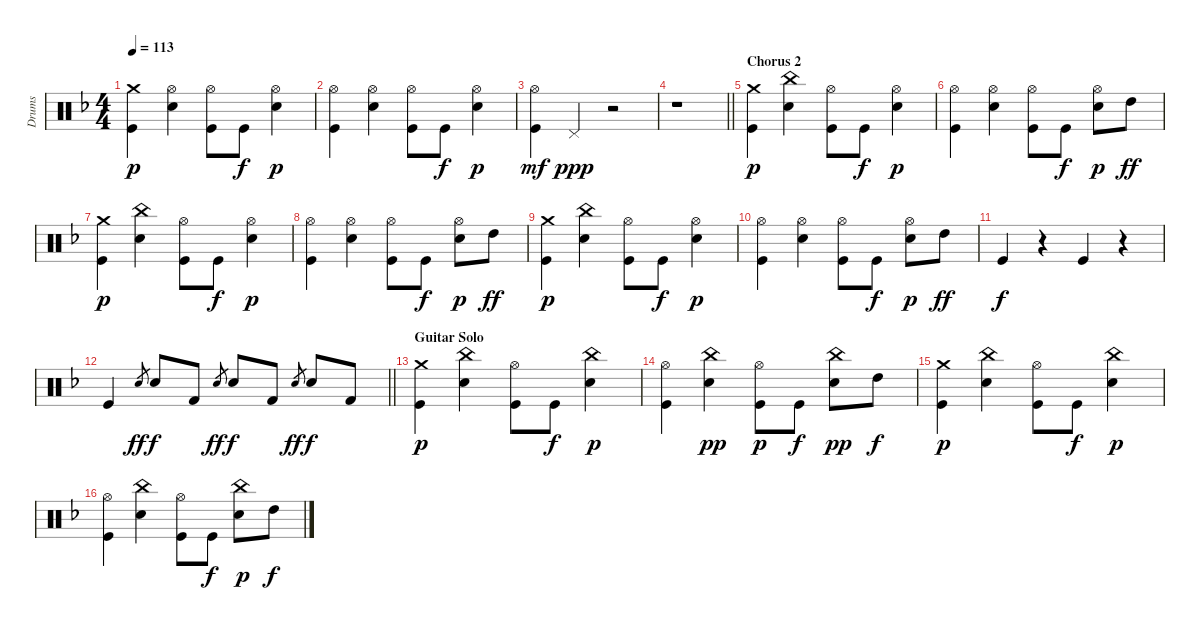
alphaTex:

\track ("Drums" "Drums") {instrument percussion}
\staff {score}
\articulation defaults
\ts (4 4)
\tempo 113
\clef neutral
\ks dminor
("Kick (hit)" "Crash medium (hit)").4{dy p} ("Hi-Hat (open)" "Electric Snare (hit)").4 ("Kick (hit)" "Hi-Hat (open)").8 "Kick (hit)".8{dy f} ("Electric Snare (hit)" "Hi-Hat (open)").4{dy p} |
("Kick (hit)" "Hi-Hat (open)").4 ("Hi-Hat (open)" "Electric Snare (hit)").4 ("Kick (hit)" "Hi-Hat (open)").8 "Kick (hit)".8{dy f} ("Electric Snare (hit)" "Hi-Hat (open)").4{dy p} |
("Kick (hit)" "Hi-Hat (open)").4{dy mf} "Pedal Hi-Hat (hit)".4{dy ppp} r.2 |
\barLineRight lightlight
r.1 |
\section ("" "Chorus 2")
("Kick (hit)" "Crash medium (hit)").4{dy p} ("China (hit)" "Electric Snare (hit)").4 ("Kick (hit)" "Hi-Hat (open)").8 "Kick (hit)".8{dy f} ("Electric Snare (hit)" "Hi-Hat (open)").4{dy p} |
("Kick (hit)" "Hi-Hat (open)").4 ("Hi-Hat (open)" "Electric Snare (hit)").4 ("Kick (hit)" "Hi-Hat (open)").8 "Kick (hit)".8{dy f} ("Electric Snare (hit)" "Hi-Hat (open)").8{dy p} "High Tom (hit)".8{dy ff} |
("Kick (hit)" "Crash medium (hit)").4{dy p} ("China (hit)" "Electric Snare (hit)").4 ("Kick (hit)" "Hi-Hat (open)").8 "Kick (hit)".8{dy f} ("Electric Snare (hit)" "Hi-Hat (open)").4{dy p} |
("Kick (hit)" "Hi-Hat (open)").4 ("Hi-Hat (open)" "Electric Snare (hit)").4 ("Kick (hit)" "Hi-Hat (open)").8 "Kick (hit)".8{dy f} ("Electric Snare (hit)" "Hi-Hat (open)").8{dy p} "High Tom (hit)".8{dy ff} |
("Kick (hit)" "Crash medium (hit)").4{dy p} ("China (hit)" "Electric Snare (hit)").4 ("Kick (hit)" "Hi-Hat (open)").8 "Kick (hit)".8{dy f} ("Electric Snare (hit)" "Hi-Hat (open)").4{dy p} |
("Kick (hit)" "Hi-Hat (open)").4 ("Hi-Hat (open)" "Electric Snare (hit)").4 ("Kick (hit)" "Hi-Hat (open)").8 "Kick (hit)".8{dy f} ("Electric Snare (hit)" "Hi-Hat (open)").8{dy p} "High Tom (hit)".8{dy ff} |
"Kick (hit)".4{dy f} r.4 "Kick (hit)".4 r.4 |
\barLineRight lightlight "Kick (hit)".4 "Electric Snare (hit)".8{gr dy ff} "Electric Snare (hit)".8{dy f} "Kick (hit) 2".8 "Electric Snare (hit)".8{gr dy ff} "Electric Snare (hit)".8{dy f} "Kick (hit) 2".8 "Electric Snare (hit)".8{gr dy ff} "Electric Snare (hit)".8{dy f} "Kick (hit) 2".8
|
\section ("" "Guitar Solo")
("Kick (hit)" "Crash medium (hit)").4{dy p} ("China (hit)" "Electric Snare (hit)").4 ("Kick (hit)" "Hi-Hat (open)").8 "Kick (hit)".8{dy f} ("Electric Snare (hit)" "China (hit)").4{dy p} |
("Kick (hit)" "Hi-Hat (open)").4 ("China (hit)" "Electric Snare (hit)").4{dy pp} ("Kick (hit)" "Hi-Hat (open)").8{dy p} "Kick (hit)".8{dy f} ("Electric Snare (hit)" "China (hit)").8{dy pp} "High Tom (hit)".8{dy f} |
("Kick (hit)" "Crash medium (hit)").4{dy p} ("China (hit)" "Electric Snare (hit)").4 ("Kick (hit)" "Hi-Hat (open)").8 "Kick (hit)".8{dy f} ("Electric Snare (hit)" "China (hit)").4{dy p} |
("Kick (hit)" "Hi-Hat (open)").4 ("China (hit)" "Electric Snare (hit)").4 ("Kick (hit)" "Hi-Hat (open)").8 "Kick (hit)".8{dy f} ("Electric Snare (hit)" "China (hit)").8{dy p} "High Tom (hit)".8{dy f}
